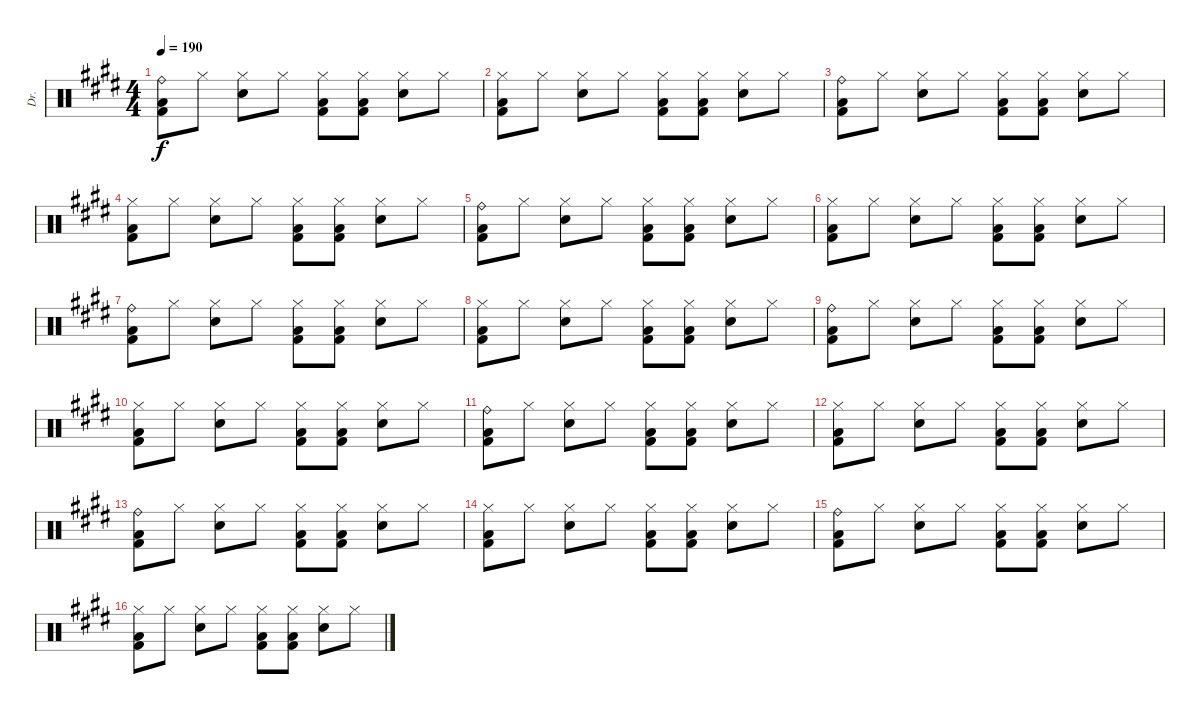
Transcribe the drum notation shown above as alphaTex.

\track ("Dr." "Dr.") {instrument percussion}
\staff {score}
\articulation defaults
\ts (4 4)
\tempo 190
\clef neutral
\ks e
("Ride (bell)" "Low Floor Tom (hit)" "Kick (hit) 2").8{dy f} "Hi-Hat (closed)".8 ("Electric Snare (hit)" "Hi-Hat (closed)").8 "Hi-Hat (closed)".8 ("Hi-Hat (closed)" "Low Floor Tom (hit)" "Kick (hit) 2").8 ("Hi-Hat (closed)" "Low Floor Tom (hit)" "Kick (hit) 2").8 ("Electric Snare (hit)" "Hi-Hat (closed)").8 "Hi-Hat (closed)".8 |
("Hi-Hat (closed)" "Low Floor Tom (hit)" "Kick (hit) 2").8 "Hi-Hat (closed)".8 ("Electric Snare (hit)" "Hi-Hat (closed)").8 "Hi-Hat (closed)".8 ("Hi-Hat (closed)" "Low Floor Tom (hit)" "Kick (hit) 2").8 ("Hi-Hat (closed)" "Low Floor Tom (hit)" "Kick (hit) 2").8 ("Electric Snare (hit)" "Hi-Hat (closed)").8 "Hi-Hat (closed)".8 |
("Ride (bell)" "Low Floor Tom (hit)" "Kick (hit) 2").8 "Hi-Hat (closed)".8 ("Electric Snare (hit)" "Hi-Hat (closed)").8 "Hi-Hat (closed)".8 ("Hi-Hat (closed)" "Low Floor Tom (hit)" "Kick (hit) 2").8 ("Hi-Hat (closed)" "Low Floor Tom (hit)" "Kick (hit) 2").8 ("Electric Snare (hit)" "Hi-Hat (closed)").8 "Hi-Hat (closed)".8 |
("Hi-Hat (closed)" "Low Floor Tom (hit)" "Kick (hit) 2").8 "Hi-Hat (closed)".8 ("Electric Snare (hit)" "Hi-Hat (closed)").8 "Hi-Hat (closed)".8 ("Hi-Hat (closed)" "Low Floor Tom (hit)" "Kick (hit) 2").8 ("Hi-Hat (closed)" "Low Floor Tom (hit)" "Kick (hit) 2").8 ("Electric Snare (hit)" "Hi-Hat (closed)").8 "Hi-Hat (closed)".8 |
("Ride (bell)" "Low Floor Tom (hit)" "Kick (hit) 2").8 "Hi-Hat (closed)".8 ("Electric Snare (hit)" "Hi-Hat (closed)").8 "Hi-Hat (closed)".8 ("Hi-Hat (closed)" "Low Floor Tom (hit)" "Kick (hit) 2").8 ("Hi-Hat (closed)" "Low Floor Tom (hit)" "Kick (hit) 2").8 ("Electric Snare (hit)" "Hi-Hat (closed)").8 "Hi-Hat (closed)".8 |
("Hi-Hat (closed)" "Low Floor Tom (hit)" "Kick (hit) 2").8 "Hi-Hat (closed)".8 ("Electric Snare (hit)" "Hi-Hat (closed)").8 "Hi-Hat (closed)".8 ("Hi-Hat (closed)" "Low Floor Tom (hit)" "Kick (hit) 2").8 ("Hi-Hat (closed)" "Low Floor Tom (hit)" "Kick (hit) 2").8 ("Electric Snare (hit)" "Hi-Hat (closed)").8 "Hi-Hat (closed)".8 |
("Ride (bell)" "Low Floor Tom (hit)" "Kick (hit) 2").8 "Hi-Hat (closed)".8 ("Electric Snare (hit)" "Hi-Hat (closed)").8 "Hi-Hat (closed)".8 ("Hi-Hat (closed)" "Low Floor Tom (hit)" "Kick (hit) 2").8 ("Hi-Hat (closed)" "Low Floor Tom (hit)" "Kick (hit) 2").8 ("Electric Snare (hit)" "Hi-Hat (closed)").8 "Hi-Hat (closed)".8 |
("Hi-Hat (closed)" "Low Floor Tom (hit)" "Kick (hit) 2").8 "Hi-Hat (closed)".8 ("Electric Snare (hit)" "Hi-Hat (closed)").8 "Hi-Hat (closed)".8 ("Hi-Hat (closed)" "Low Floor Tom (hit)" "Kick (hit) 2").8 ("Hi-Hat (closed)" "Low Floor Tom (hit)" "Kick (hit) 2").8 ("Electric Snare (hit)" "Hi-Hat (closed)").8 "Hi-Hat (closed)".8 |
("Ride (bell)" "Low Floor Tom (hit)" "Kick (hit) 2").8 "Hi-Hat (closed)".8 ("Electric Snare (hit)" "Hi-Hat (closed)").8 "Hi-Hat (closed)".8 ("Hi-Hat (closed)" "Low Floor Tom (hit)" "Kick (hit) 2").8 ("Hi-Hat (closed)" "Low Floor Tom (hit)" "Kick (hit) 2").8 ("Electric Snare (hit)" "Hi-Hat (closed)").8 "Hi-Hat (closed)".8 |
("Hi-Hat (closed)" "Low Floor Tom (hit)" "Kick (hit) 2").8 "Hi-Hat (closed)".8 ("Electric Snare (hit)" "Hi-Hat (closed)").8 "Hi-Hat (closed)".8 ("Hi-Hat (closed)" "Low Floor Tom (hit)" "Kick (hit) 2").8 ("Hi-Hat (closed)" "Low Floor Tom (hit)" "Kick (hit) 2").8 ("Electric Snare (hit)" "Hi-Hat (closed)").8 "Hi-Hat (closed)".8 |
("Ride (bell)" "Low Floor Tom (hit)" "Kick (hit) 2").8 "Hi-Hat (closed)".8 ("Electric Snare (hit)" "Hi-Hat (closed)").8 "Hi-Hat (closed)".8 ("Hi-Hat (closed)" "Low Floor Tom (hit)" "Kick (hit) 2").8 ("Hi-Hat (closed)" "Low Floor Tom (hit)" "Kick (hit) 2").8 ("Electric Snare (hit)" "Hi-Hat (closed)").8 "Hi-Hat (closed)".8 |
("Hi-Hat (closed)" "Low Floor Tom (hit)" "Kick (hit) 2").8 "Hi-Hat (closed)".8 ("Electric Snare (hit)" "Hi-Hat (closed)").8 "Hi-Hat (closed)".8 ("Hi-Hat (closed)" "Low Floor Tom (hit)" "Kick (hit) 2").8 ("Hi-Hat (closed)" "Low Floor Tom (hit)" "Kick (hit) 2").8 ("Electric Snare (hit)" "Hi-Hat (closed)").8 "Hi-Hat (closed)".8 |
("Ride (bell)" "Low Floor Tom (hit)" "Kick (hit) 2").8 "Hi-Hat (closed)".8 ("Electric Snare (hit)" "Hi-Hat (closed)").8 "Hi-Hat (closed)".8 ("Hi-Hat (closed)" "Low Floor Tom (hit)" "Kick (hit) 2").8 ("Hi-Hat (closed)" "Low Floor Tom (hit)" "Kick (hit) 2").8 ("Electric Snare (hit)" "Hi-Hat (closed)").8 "Hi-Hat (closed)".8 |
("Hi-Hat (closed)" "Low Floor Tom (hit)" "Kick (hit) 2").8 "Hi-Hat (closed)".8 ("Electric Snare (hit)" "Hi-Hat (closed)").8 "Hi-Hat (closed)".8 ("Hi-Hat (closed)" "Low Floor Tom (hit)" "Kick (hit) 2").8 ("Hi-Hat (closed)" "Low Floor Tom (hit)" "Kick (hit) 2").8 ("Electric Snare (hit)" "Hi-Hat (closed)").8 "Hi-Hat (closed)".8 |
("Ride (bell)" "Low Floor Tom (hit)" "Kick (hit) 2").8 "Hi-Hat (closed)".8 ("Electric Snare (hit)" "Hi-Hat (closed)").8 "Hi-Hat (closed)".8 ("Hi-Hat (closed)" "Low Floor Tom (hit)" "Kick (hit) 2").8 ("Hi-Hat (closed)" "Low Floor Tom (hit)" "Kick (hit) 2").8 ("Electric Snare (hit)" "Hi-Hat (closed)").8 "Hi-Hat (closed)".8 |
("Hi-Hat (closed)" "Low Floor Tom (hit)" "Kick (hit) 2").8 "Hi-Hat (closed)".8 ("Electric Snare (hit)" "Hi-Hat (closed)").8 "Hi-Hat (closed)".8 ("Hi-Hat (closed)" "Low Floor Tom (hit)" "Kick (hit) 2").8 ("Hi-Hat (closed)" "Low Floor Tom (hit)" "Kick (hit) 2").8 ("Electric Snare (hit)" "Hi-Hat (closed)").8 "Hi-Hat (closed)".8
